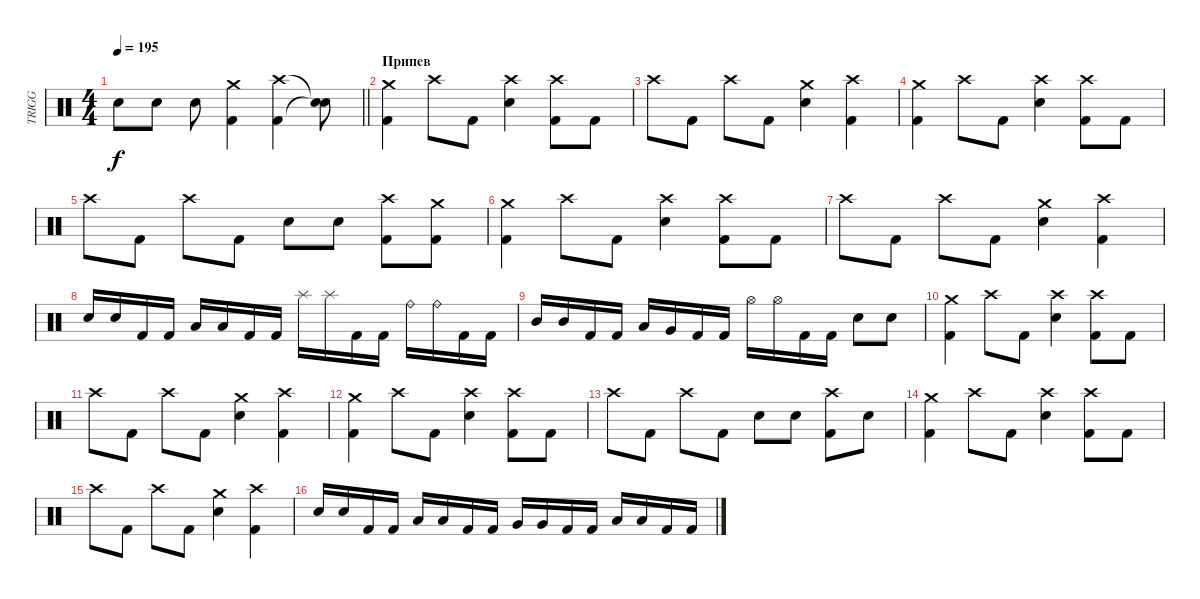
\track ("TRIGG" "TRIGG") {instrument percussion}
\staff {score}
\articulation defaults
\ts (4 4)
\tempo 195
\clef neutral
\barLineRight lightlight
\ks c "Electric Snare (hit)".8{dy f} "Electric Snare (hit)".8 "Electric Snare (hit)".8
("Crash medium (hit)" "Kick (hit) 2").4 ("Crash high (hit)" "Kick (hit) 2").4 ("Snare (hit)"{t} "Snare (hit)"{t}).8 |
\section ("" "Припев")
("Crash medium (hit)" "Kick (hit) 2").4 "Crash high (hit)".8 "Kick (hit) 2".8 ("Crash high (hit)" "Electric Snare (hit)").4 ("Crash high (hit)" "Kick (hit) 2").8 "Kick (hit) 2".8 |
"Crash high (hit)".8 "Kick (hit) 2".8 "Crash high (hit)".8 "Kick (hit) 2".8 ("Crash medium (hit)" "Electric Snare (hit)").4 ("Crash high (hit)" "Kick (hit) 2").4 |
("Crash medium (hit)" "Kick (hit) 2").4 "Crash high (hit)".8 "Kick (hit) 2".8 ("Crash high (hit)" "Electric Snare (hit)").4 ("Crash high (hit)" "Kick (hit) 2").8 "Kick (hit) 2".8 |
"Crash high (hit)".8 "Kick (hit) 2".8 "Crash high (hit)".8 "Kick (hit) 2".8 "Electric Snare (hit)".8 "Electric Snare (hit)".8 ("Crash high (hit)" "Kick (hit) 2").8 ("Crash medium (hit)" "Kick (hit) 2").8 |
("Crash medium (hit)" "Kick (hit) 2").4 "Crash high (hit)".8 "Kick (hit) 2".8 ("Crash high (hit)" "Electric Snare (hit)").4 ("Crash high (hit)" "Kick (hit) 2").8 "Kick (hit) 2".8 |
"Crash high (hit)".8 "Kick (hit) 2".8 "Crash high (hit)".8 "Kick (hit) 2".8 ("Crash medium (hit)" "Electric Snare (hit)").4 ("Crash high (hit)" "Kick (hit) 2").4 |
"Electric Snare (hit)".16 "Electric Snare (hit)".16 "Kick (hit) 2".16 "Kick (hit) 2".16 "Low Tom (hit)".16 "Low Tom (hit)".16 "Kick (hit) 2".16 "Kick (hit) 2".16 "Splash (hit)".16 "Splash (hit)".16 "Kick (hit) 2".16 "Kick (hit) 2".16 "Ride (bell)".16 "Ride (bell)".16 "Kick (hit) 2".16 "Kick (hit) 2".16 |
"Mid Tom (hit)".16 "Mid Tom (hit)".16 "Kick (hit) 2".16 "Kick (hit) 2".16 "Low Tom (hit)".16 "Very Low Tom (hit)".16 "Kick (hit) 2".16 "Kick (hit) 2".16 "Hi-Hat (open)".16 "Hi-Hat (open)".16 "Kick (hit) 2".16 "Kick (hit) 2".16 "Electric Snare (hit)".8 "Electric Snare (hit)".8 |
("Crash medium (hit)" "Kick (hit) 2").4 "Crash high (hit)".8 "Kick (hit) 2".8 ("Crash high (hit)" "Electric Snare (hit)").4 ("Crash high (hit)" "Kick (hit) 2").8 "Kick (hit) 2".8 |
"Crash high (hit)".8 "Kick (hit) 2".8 "Crash high (hit)".8 "Kick (hit) 2".8 ("Crash medium (hit)" "Electric Snare (hit)").4 ("Crash high (hit)" "Kick (hit) 2").4 |
("Crash medium (hit)" "Kick (hit) 2").4 "Crash high (hit)".8 "Kick (hit) 2".8 ("Crash high (hit)" "Electric Snare (hit)").4 ("Crash high (hit)" "Kick (hit) 2").8 "Kick (hit) 2".8 |
"Crash high (hit)".8 "Kick (hit) 2".8 "Crash high (hit)".8 "Kick (hit) 2".8 "Electric Snare (hit)".8 "Electric Snare (hit)".8 ("Crash high (hit)" "Kick (hit) 2").8 "Electric Snare (hit)".8 |
("Crash medium (hit)" "Kick (hit) 2").4 "Crash high (hit)".8 "Kick (hit) 2".8 ("Crash high (hit)" "Electric Snare (hit)").4 ("Crash high (hit)" "Kick (hit) 2").8 "Kick (hit) 2".8 |
"Crash high (hit)".8 "Kick (hit) 2".8 "Crash high (hit)".8 "Kick (hit) 2".8 ("Crash medium (hit)" "Electric Snare (hit)").4 ("Crash high (hit)" "Kick (hit) 2").4 |
"Electric Snare (hit)".16 "Electric Snare (hit)".16 "Kick (hit) 2".16 "Kick (hit) 2".16 "Low Tom (hit)".16 "Low Tom (hit)".16 "Kick (hit) 2".16 "Kick (hit) 2".16 "Very Low Tom (hit)".16 "Very Low Tom (hit)".16 "Kick (hit) 2".16 "Kick (hit) 2".16 "Low Floor Tom (hit)".16 "Low Floor Tom (hit)".16 "Kick (hit) 2".16 "Kick (hit) 2".16
